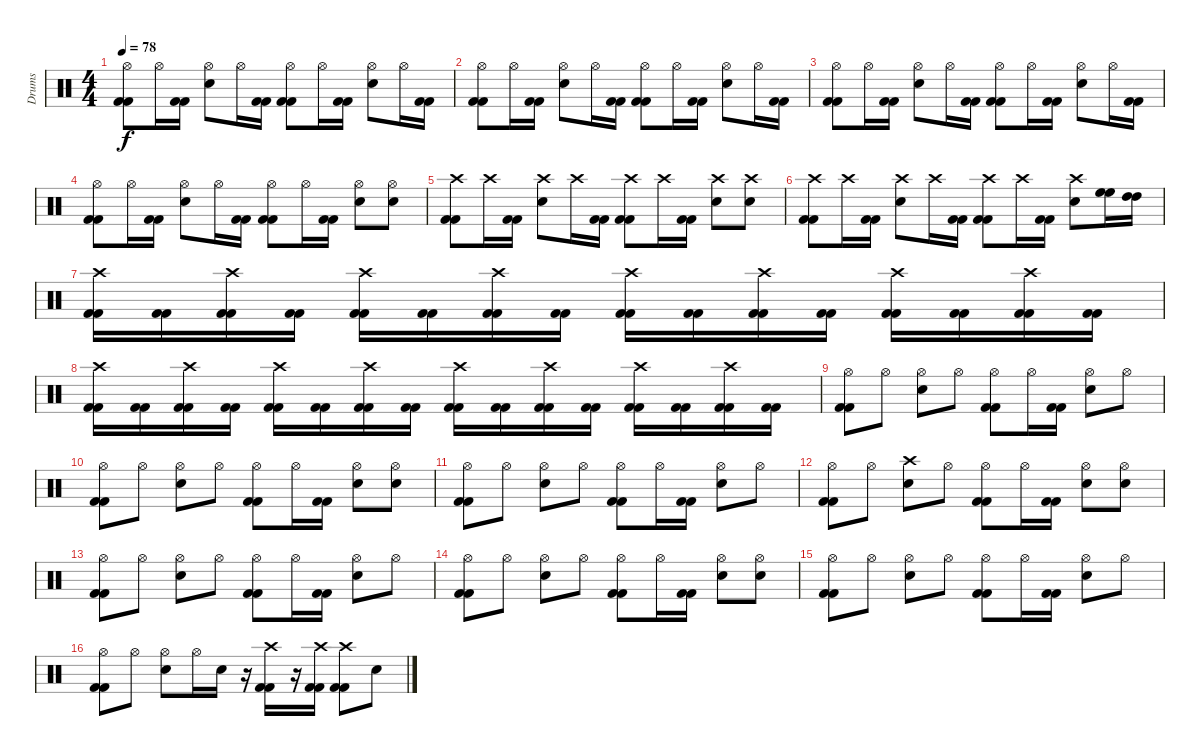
\track ("Drums" "Drums") {instrument percussion}
\staff {score}
\articulation defaults
\ts (4 4)
\tempo 78
\clef neutral
\ks c
("Hi-Hat (open)" "Kick (hit) 2" "Kick (hit) 2").8{dy f} "Hi-Hat (open)".16 ("Kick (hit) 2" "Kick (hit) 2").16 ("Hi-Hat (open)" "Snare (hit) 2").8 "Hi-Hat (open)".16 ("Kick (hit) 2" "Kick (hit) 2").16 ("Hi-Hat (open)" "Kick (hit) 2" "Kick (hit) 2").8 "Hi-Hat (open)".16 ("Kick (hit) 2" "Kick (hit) 2").16 ("Hi-Hat (open)" "Snare (hit) 2").8 "Hi-Hat (open)".16 ("Kick (hit) 2" "Kick (hit) 2").16 |
("Hi-Hat (open)" "Kick (hit) 2" "Kick (hit) 2").8 "Hi-Hat (open)".16 ("Kick (hit) 2" "Kick (hit) 2").16 ("Hi-Hat (open)" "Snare (hit) 2").8 "Hi-Hat (open)".16 ("Kick (hit) 2" "Kick (hit) 2").16 ("Hi-Hat (open)" "Kick (hit) 2" "Kick (hit) 2").8 "Hi-Hat (open)".16 ("Kick (hit) 2" "Kick (hit) 2").16 ("Hi-Hat (open)" "Snare (hit) 2").8 "Hi-Hat (open)".16 ("Kick (hit) 2" "Kick (hit) 2").16 |
("Hi-Hat (open)" "Kick (hit) 2" "Kick (hit) 2").8 "Hi-Hat (open)".16 ("Kick (hit) 2" "Kick (hit) 2").16 ("Hi-Hat (open)" "Snare (hit) 2").8 "Hi-Hat (open)".16 ("Kick (hit) 2" "Kick (hit) 2").16 ("Hi-Hat (open)" "Kick (hit) 2" "Kick (hit) 2").8 "Hi-Hat (open)".16 ("Kick (hit) 2" "Kick (hit) 2").16 ("Hi-Hat (open)" "Snare (hit) 2").8 "Hi-Hat (open)".16 ("Kick (hit) 2" "Kick (hit) 2").16 |
("Hi-Hat (open)" "Kick (hit) 2" "Kick (hit) 2").8 "Hi-Hat (open)".16 ("Kick (hit) 2" "Kick (hit) 2").16 ("Hi-Hat (open)" "Snare (hit) 2").8 "Hi-Hat (open)".16 ("Kick (hit) 2" "Kick (hit) 2").16 ("Hi-Hat (open)" "Kick (hit) 2" "Kick (hit) 2").8 "Hi-Hat (open)".16 ("Kick (hit) 2" "Kick (hit) 2").16 ("Hi-Hat (open)" "Snare (hit) 2").8 ("Hi-Hat (open)" "Snare (hit) 2").8 |
("Crash high (hit)" "Kick (hit) 2" "Kick (hit) 2").8 "Crash high (hit)".16 ("Kick (hit) 2" "Kick (hit) 2").16 ("Crash high (hit)" "Snare (hit) 2").8 "Crash high (hit)".16 ("Kick (hit) 2" "Kick (hit) 2").16 ("Crash high (hit)" "Kick (hit) 2" "Kick (hit) 2").8 "Crash high (hit)".16 ("Kick (hit) 2" "Kick (hit) 2").16 ("Crash high (hit)" "Snare (hit) 2").8 ("Crash high (hit)" "Snare (hit) 2").8 |
("Crash high (hit)" "Kick (hit) 2" "Kick (hit) 2").8 "Crash high (hit)".16 ("Kick (hit) 2" "Kick (hit) 2").16 ("Crash high (hit)" "Snare (hit) 2").8 "Crash high (hit)".16 ("Kick (hit) 2" "Kick (hit) 2").16 ("Crash high (hit)" "Kick (hit) 2" "Kick (hit) 2").8 "Crash high (hit)".16 ("Kick (hit) 2" "Kick (hit) 2").16 ("Crash high (hit)" "Snare (hit) 2").8 ("High Floor Tom (hit)" "High Floor Tom (hit)").16 ("High Tom (hit)" "High Tom (hit)").16 |
("Crash high (hit)" "Kick (hit) 2" "Kick (hit) 2").16 ("Kick (hit) 2" "Kick (hit) 2").16 ("Crash high (hit)" "Kick (hit) 2" "Kick (hit) 2").16 ("Kick (hit) 2" "Kick (hit) 2").16 ("Crash high (hit)" "Kick (hit) 2" "Kick (hit) 2").16 ("Kick (hit) 2" "Kick (hit) 2").16 ("Crash high (hit)" "Kick (hit) 2" "Kick (hit) 2").16 ("Kick (hit) 2" "Kick (hit) 2").16 ("Crash high (hit)" "Kick (hit) 2" "Kick (hit) 2").16 ("Kick (hit) 2" "Kick (hit) 2").16 ("Crash high (hit)" "Kick (hit) 2" "Kick (hit) 2").16 ("Kick (hit) 2" "Kick (hit) 2").16 ("Crash high (hit)" "Kick (hit) 2" "Kick (hit) 2").16 ("Kick (hit) 2" "Kick (hit) 2").16 ("Crash high (hit)" "Kick (hit) 2" "Kick (hit) 2").16 ("Kick (hit) 2" "Kick (hit) 2").16 |
("Crash high (hit)" "Kick (hit) 2" "Kick (hit) 2").16 ("Kick (hit) 2" "Kick (hit) 2").16 ("Crash high (hit)" "Kick (hit) 2" "Kick (hit) 2").16 ("Kick (hit) 2" "Kick (hit) 2").16 ("Crash high (hit)" "Kick (hit) 2" "Kick (hit) 2").16 ("Kick (hit) 2" "Kick (hit) 2").16 ("Crash high (hit)" "Kick (hit) 2" "Kick (hit) 2").16 ("Kick (hit) 2" "Kick (hit) 2").16 ("Crash high (hit)" "Kick (hit) 2" "Kick (hit) 2").16 ("Kick (hit) 2" "Kick (hit) 2").16 ("Crash high (hit)" "Kick (hit) 2" "Kick (hit) 2").16 ("Kick (hit) 2" "Kick (hit) 2").16 ("Crash high (hit)" "Kick (hit) 2" "Kick (hit) 2").16 ("Kick (hit) 2" "Kick (hit) 2").16 ("Crash high (hit)" "Kick (hit) 2" "Kick (hit) 2").16 ("Kick (hit) 2" "Kick (hit) 2").16 |
("Hi-Hat (open)" "Kick (hit) 2" "Kick (hit) 2").8 "Hi-Hat (open)".8 ("Hi-Hat (open)" "Snare (hit) 2").8 "Hi-Hat (open)".8 ("Hi-Hat (open)" "Kick (hit) 2" "Kick (hit) 2").8 "Hi-Hat (open)".16 ("Kick (hit) 2" "Kick (hit) 2").16 ("Hi-Hat (open)" "Snare (hit) 2").8 "Hi-Hat (open)".8 |
("Hi-Hat (open)" "Kick (hit) 2" "Kick (hit) 2").8 "Hi-Hat (open)".8 ("Hi-Hat (open)" "Snare (hit) 2").8 "Hi-Hat (open)".8 ("Hi-Hat (open)" "Kick (hit) 2" "Kick (hit) 2").8 "Hi-Hat (open)".16 ("Kick (hit) 2" "Kick (hit) 2").16 ("Hi-Hat (open)" "Snare (hit) 2").8 ("Hi-Hat (open)" "Snare (hit) 2").8 |
("Hi-Hat (open)" "Kick (hit) 2" "Kick (hit) 2").8 "Hi-Hat (open)".8 ("Hi-Hat (open)" "Snare (hit) 2").8 "Hi-Hat (open)".8 ("Hi-Hat (open)" "Kick (hit) 2" "Kick (hit) 2").8 "Hi-Hat (open)".16 ("Kick (hit) 2" "Kick (hit) 2").16 ("Hi-Hat (open)" "Snare (hit) 2").8 "Hi-Hat (open)".8 |
("Hi-Hat (open)" "Kick (hit) 2" "Kick (hit) 2").8 "Hi-Hat (open)".8 ("Crash high (hit)" "Snare (hit) 2").8 "Hi-Hat (open)".8 ("Hi-Hat (open)" "Kick (hit) 2" "Kick (hit) 2").8 "Hi-Hat (open)".16 ("Kick (hit) 2" "Kick (hit) 2").16 ("Hi-Hat (open)" "Snare (hit) 2").8 ("Hi-Hat (open)" "Snare (hit) 2").8 |
("Hi-Hat (open)" "Kick (hit) 2" "Kick (hit) 2").8 "Hi-Hat (open)".8 ("Hi-Hat (open)" "Snare (hit) 2").8 "Hi-Hat (open)".8 ("Hi-Hat (open)" "Kick (hit) 2" "Kick (hit) 2").8 "Hi-Hat (open)".16 ("Kick (hit) 2" "Kick (hit) 2").16 ("Hi-Hat (open)" "Snare (hit) 2").8 "Hi-Hat (open)".8 |
("Hi-Hat (open)" "Kick (hit) 2" "Kick (hit) 2").8 "Hi-Hat (open)".8 ("Hi-Hat (open)" "Snare (hit) 2").8 "Hi-Hat (open)".8 ("Hi-Hat (open)" "Kick (hit) 2" "Kick (hit) 2").8 "Hi-Hat (open)".16 ("Kick (hit) 2" "Kick (hit) 2").16 ("Hi-Hat (open)" "Snare (hit) 2").8 ("Hi-Hat (open)" "Snare (hit) 2").8 |
("Hi-Hat (open)" "Kick (hit) 2" "Kick (hit) 2").8 "Hi-Hat (open)".8 ("Hi-Hat (open)" "Snare (hit) 2").8 "Hi-Hat (open)".8 ("Hi-Hat (open)" "Kick (hit) 2" "Kick (hit) 2").8 "Hi-Hat (open)".16 ("Kick (hit) 2" "Kick (hit) 2").16 ("Hi-Hat (open)" "Snare (hit) 2").8 "Hi-Hat (open)".8 |
("Hi-Hat (open)" "Kick (hit) 2" "Kick (hit) 2").8 "Hi-Hat (open)".8 ("Hi-Hat (open)" "Snare (hit) 2").8 "Hi-Hat (open)".16 "Snare (hit) 2".16 r.16 ("Crash high (hit)" "Kick (hit) 2" "Kick (hit) 2").16 r.16 ("Crash high (hit)" "Kick (hit) 2" "Kick (hit) 2").16 ("Crash high (hit)" "Kick (hit) 2" "Kick (hit) 2").8 "Snare (hit) 2".8
